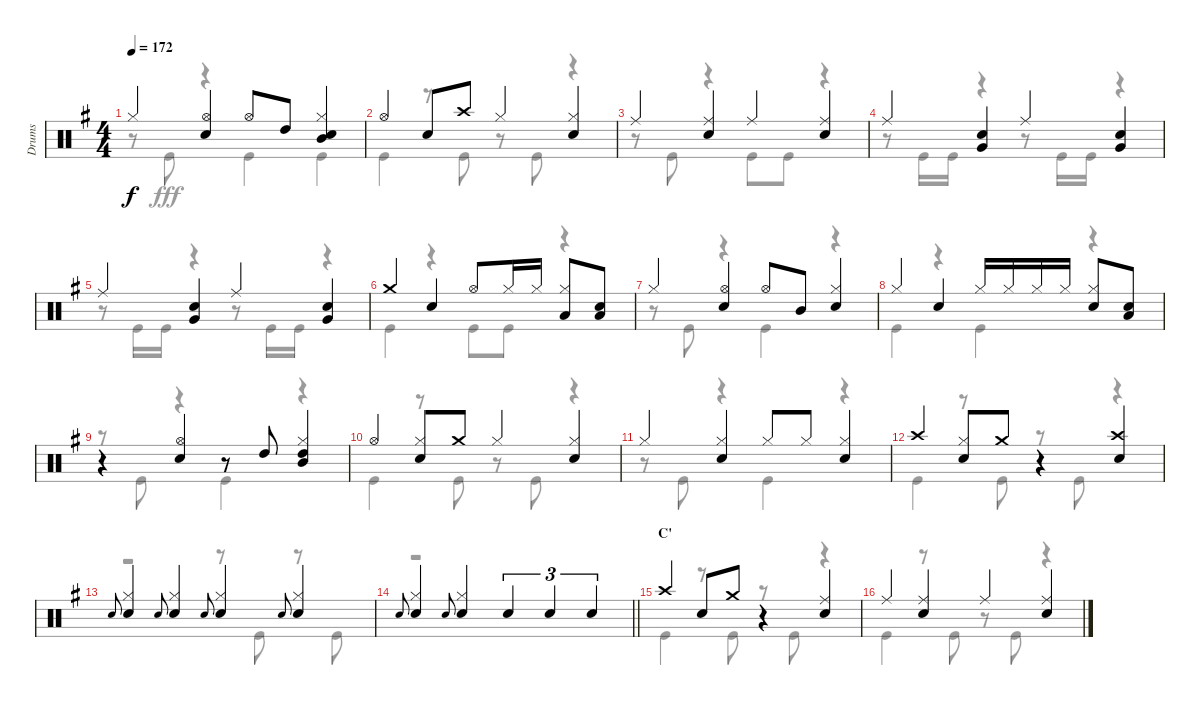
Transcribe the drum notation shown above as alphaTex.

\track ("Drums" "Drums") {instrument percussion}
\staff {score}
\articulation defaults
\voice
\ts (4 4)
\tempo 172
\clef neutral
\ks g "Hi-Hat (closed)".4{dy f}
("Hi-Hat (open)" "Snare (hit) 2").4 "Hi-Hat (open)".8 "High Tom (hit)".8 ("Hi-Hat (closed)" "Mid Tom (hit)" "Snare (hit) 2").4 |
"Hi-Hat (open)".4 "Snare (hit) 2".8 "Crash high (hit)".8 "Hi-Hat (closed)".4 ("Hi-Hat (closed)" "Snare (hit) 2").4 |
"Ride (middle)".4 ("Ride (middle)" "Snare (hit) 2").4 "Ride (middle)".4 ("Ride (middle)" "Snare (hit) 2").4 |
"Ride (middle)".4 ("Snare (hit) 2" "Very Low Tom (hit)").4 "Ride (middle)".4 ("Snare (hit) 2" "Very Low Tom (hit)").4 |
"Ride (middle)".4 ("Snare (hit) 2" "Very Low Tom (hit)").4 "Ride (middle)".4 ("Snare (hit) 2" "Very Low Tom (hit)").4 |
"Crash medium (hit)".4 "Snare (hit) 2".4 "Hi-Hat (open)".8 "Hi-Hat (closed)".16 "Hi-Hat (closed)".16 ("Hi-Hat (closed)" "Low Tom (hit)").8 ("Snare (hit) 2" "Low Tom (hit)").8 |
"Hi-Hat (closed)".4 ("Hi-Hat (open)" "Snare (hit) 2").4 "Hi-Hat (open)".8 "Mid Tom (hit)".8 ("Hi-Hat (closed)" "Snare (hit) 2").4 |
"Hi-Hat (closed)".4 "Snare (hit) 2".4 "Hi-Hat (closed)".16 "Hi-Hat (closed)".16 "Hi-Hat (closed)".16 "Hi-Hat (closed)".16 ("Hi-Hat (closed)" "Snare (hit) 2").8 ("Snare (hit) 2" "Low Tom (hit)").8 |
r.4 ("Hi-Hat (open)" "Snare (hit) 2").4 r.8 "High Tom (hit)".8 ("High Tom (hit)" "Mid Tom (hit)" "Hi-Hat (closed)").4 |
"Hi-Hat (open)".4 ("Hi-Hat (closed)" "Snare (hit) 2").8 "Crash medium (hit)".8 "Hi-Hat (closed)".4 ("Hi-Hat (closed)" "Snare (hit) 2").4 |
"Hi-Hat (closed)".4 ("Hi-Hat (closed)" "Snare (hit) 2").4 "Hi-Hat (closed)".8 "Hi-Hat (closed)".8 ("Hi-Hat (closed)" "Snare (hit) 2").4 |
"Crash high (hit)".4 ("Hi-Hat (closed)" "Snare (hit) 2").8 "Crash medium (hit)".8 r.4 ("Crash high (hit)" "Snare (hit) 2").4 |
"Snare (hit) 2".8{gr onbeat} ("Hi-Hat (closed)" "Snare (hit) 2").4 "Snare (hit) 2".8{gr onbeat} ("Hi-Hat (closed)" "Snare (hit) 2").4 "Snare (hit) 2".8{gr onbeat} ("Hi-Hat (closed)" "Snare (hit) 2").4 "Snare (hit) 2".8{gr onbeat} ("Hi-Hat (closed)" "Snare (hit) 2").4 |
\barLineRight lightlight "Snare (hit) 2".8{gr onbeat}
("Hi-Hat (closed)" "Snare (hit) 2").4 "Snare (hit) 2".8{gr onbeat} ("Hi-Hat (closed)" "Snare (hit) 2").4 "Snare (hit) 2".4{tu (3 2)} "Snare (hit) 2".4{tu (3 2)} "Snare (hit) 2".4{tu (3 2)} |
\section ("" "C'")
"Crash high (hit)".4 "Snare (hit) 2".8 "Crash medium (hit)".8 r.4 ("Ride (middle)" "Snare (hit) 2").4 |
"Ride (middle)".4 ("Ride (middle)" "Snare (hit) 2").4 "Ride (middle)".4 ("Ride (middle)" "Snare (hit) 2").4
\voice
\clef neutral
\ottava regular
\simile none
\ks g
r.8{dy fff} "Kick (hit)".8 r.4 "Kick (hit)".4 "Kick (hit)".4 |
"Kick (hit)".4 r.8 "Kick (hit)".8 r.8 "Kick (hit)".8 r.4 |
r.8 "Kick (hit)".8 r.4 "Kick (hit)".8 "Kick (hit)".8 r.4 |
r.8 "Kick (hit)".16 "Kick (hit)".16 r.4 r.8 "Kick (hit)".16 "Kick (hit)".16 r.4 |
r.8 "Kick (hit)".16 "Kick (hit)".16 r.4 r.8 "Kick (hit)".16 "Kick (hit)".16 r.4 |
"Kick (hit)".4 r.4 "Kick (hit)".8 "Kick (hit)".8 r.4 |
r.8 "Kick (hit)".8 r.4 "Kick (hit)".4 r.4 |
"Kick (hit)".4 r.4 "Kick (hit)".4 r.4 |
r.8 "Kick (hit)".8 r.4 "Kick (hit)".4 r.4 |
"Kick (hit)".4 r.8 "Kick (hit)".8 r.8 "Kick (hit)".8 r.4 |
r.8 "Kick (hit)".8 r.4 "Kick (hit)".4 r.4 |
"Kick (hit)".4 r.8 "Kick (hit)".8 r.8 "Kick (hit)".8 r.4 |
r.2 r.8 "Kick (hit)".8 r.8 "Kick (hit)".8 |
\barLineRight lightlight
r.1 |
"Kick (hit)".4 r.8 "Kick (hit)".8 r.8 "Kick (hit)".8 r.4 |
"Kick (hit)".4 r.8 "Kick (hit)".8 r.8 "Kick (hit)".8 r.4
